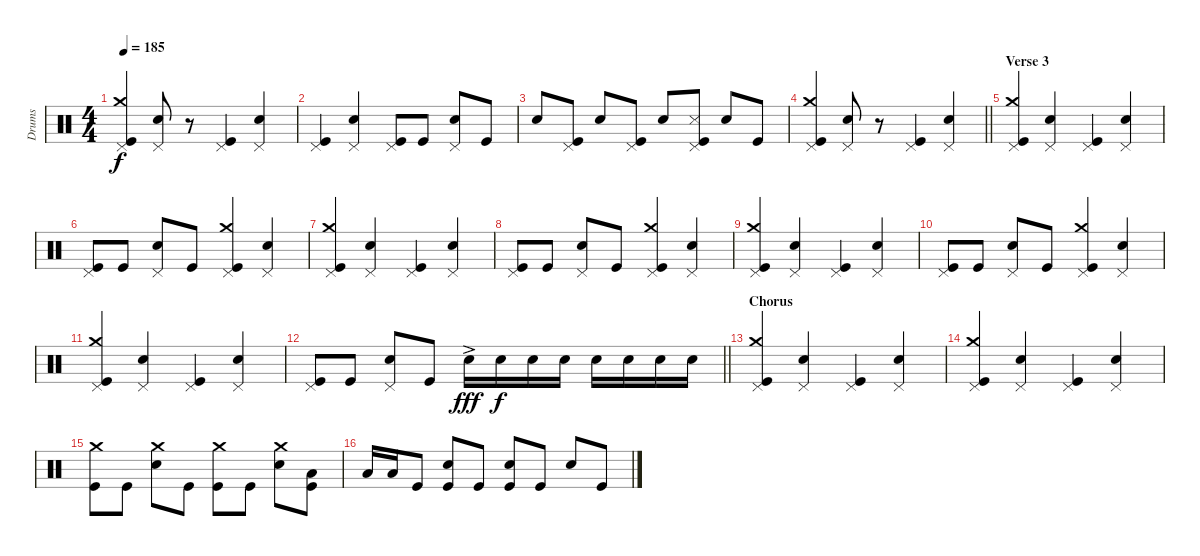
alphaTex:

\track ("Drums" "Drums") {instrument percussion}
\staff {score}
\articulation defaults
\ts (4 4)
\tempo 185
\clef neutral
\ks c
("Pedal Hi-Hat (hit)" "Crash medium (hit)" "Kick (hit)").4{dy f} ("Pedal Hi-Hat (hit)" "Snare (hit) 2").8 r.8 ("Pedal Hi-Hat (hit)" "Kick (hit)").4 ("Pedal Hi-Hat (hit)" "Snare (hit) 2").4 |
("Pedal Hi-Hat (hit)" "Kick (hit)").4 ("Pedal Hi-Hat (hit)" "Snare (hit) 2").4 ("Pedal Hi-Hat (hit)" "Kick (hit)").8 "Kick (hit)".8 ("Pedal Hi-Hat (hit)" "Snare (hit) 2").8 "Kick (hit)".8 |
"Snare (hit) 2".8 ("Pedal Hi-Hat (hit)" "Kick (hit)").8 "Snare (hit) 2".8 ("Pedal Hi-Hat (hit)" "Kick (hit)").8 "Snare (hit) 2".8 ("Pedal Hi-Hat (hit)" "Snare (side stick) 3" "Kick (hit)").8 "Snare (hit) 2".8 "Kick (hit)".8 |
\barLineRight lightlight
("Pedal Hi-Hat (hit)" "Crash medium (hit)" "Kick (hit)").4 ("Pedal Hi-Hat (hit)" "Snare (hit) 2").8 r.8 ("Pedal Hi-Hat (hit)" "Kick (hit)").4 ("Pedal Hi-Hat (hit)" "Snare (hit) 2").4 |
\section ("" "Verse 3")
("Pedal Hi-Hat (hit)" "Crash medium (hit)" "Kick (hit)").4 ("Pedal Hi-Hat (hit)" "Snare (hit) 2").4 ("Pedal Hi-Hat (hit)" "Kick (hit)").4 ("Pedal Hi-Hat (hit)" "Snare (hit) 2").4 |
("Pedal Hi-Hat (hit)" "Kick (hit)").8 "Kick (hit)".8 ("Pedal Hi-Hat (hit)" "Snare (hit) 2").8 "Kick (hit)".8 ("Pedal Hi-Hat (hit)" "Crash medium (hit)" "Kick (hit)").4 ("Pedal Hi-Hat (hit)" "Snare (hit) 2").4 |
("Pedal Hi-Hat (hit)" "Crash medium (hit)" "Kick (hit)").4 ("Pedal Hi-Hat (hit)" "Snare (hit) 2").4 ("Pedal Hi-Hat (hit)" "Kick (hit)").4 ("Pedal Hi-Hat (hit)" "Snare (hit) 2").4 |
("Pedal Hi-Hat (hit)" "Kick (hit)").8 "Kick (hit)".8 ("Pedal Hi-Hat (hit)" "Snare (hit) 2").8 "Kick (hit)".8 ("Pedal Hi-Hat (hit)" "Crash medium (hit)" "Kick (hit)").4 ("Pedal Hi-Hat (hit)" "Snare (hit) 2").4 |
("Pedal Hi-Hat (hit)" "Crash medium (hit)" "Kick (hit)").4 ("Pedal Hi-Hat (hit)" "Snare (hit) 2").4 ("Pedal Hi-Hat (hit)" "Kick (hit)").4 ("Pedal Hi-Hat (hit)" "Snare (hit) 2").4 |
("Pedal Hi-Hat (hit)" "Kick (hit)").8 "Kick (hit)".8 ("Pedal Hi-Hat (hit)" "Snare (hit) 2").8 "Kick (hit)".8 ("Pedal Hi-Hat (hit)" "Crash medium (hit)" "Kick (hit)").4 ("Pedal Hi-Hat (hit)" "Snare (hit) 2").4 |
("Pedal Hi-Hat (hit)" "Crash medium (hit)" "Kick (hit)").4 ("Pedal Hi-Hat (hit)" "Snare (hit) 2").4 ("Pedal Hi-Hat (hit)" "Kick (hit)").4 ("Pedal Hi-Hat (hit)" "Snare (hit) 2").4 |
\barLineRight lightlight
("Pedal Hi-Hat (hit)" "Kick (hit)").8 "Kick (hit)".8 ("Pedal Hi-Hat (hit)" "Snare (hit) 2").8 "Kick (hit)".8 "Snare (hit) 2"{ac}.16{dy fff} "Snare (hit) 2".16{dy f} "Snare (hit) 2".16 "Snare (hit) 2".16 "Snare (hit) 2".16 "Snare (hit) 2".16 "Snare (hit) 2".16 "Snare (hit) 2".16 |
\section ("" "Chorus")
("Pedal Hi-Hat (hit)" "Crash medium (hit)" "Kick (hit)").4 ("Pedal Hi-Hat (hit)" "Snare (hit) 2").4 ("Pedal Hi-Hat (hit)" "Kick (hit)").4 ("Pedal Hi-Hat (hit)" "Snare (hit) 2").4 |
("Pedal Hi-Hat (hit)" "Crash medium (hit)" "Kick (hit)").4 ("Pedal Hi-Hat (hit)" "Snare (hit) 2").4 ("Pedal Hi-Hat (hit)" "Kick (hit)").4 ("Pedal Hi-Hat (hit)" "Snare (hit) 2").4 |
("Crash medium (hit)" "Kick (hit)").8 "Kick (hit)".8 ("Crash medium (hit)" "Snare (hit) 2").8 "Kick (hit)".8 ("Crash medium (hit)" "Kick (hit)").8 "Kick (hit)".8 ("Crash medium (hit)" "Snare (hit) 2").8 ("Low Tom (hit)" "Kick (hit)").8 |
"Low Tom (hit)".16 "Low Tom (hit)".16 "Kick (hit)".8 ("Snare (hit) 2" "Kick (hit)").8 "Kick (hit)".8 ("Snare (hit) 2" "Kick (hit)").8 "Kick (hit)".8 "Snare (hit) 2".8 "Kick (hit)".8
